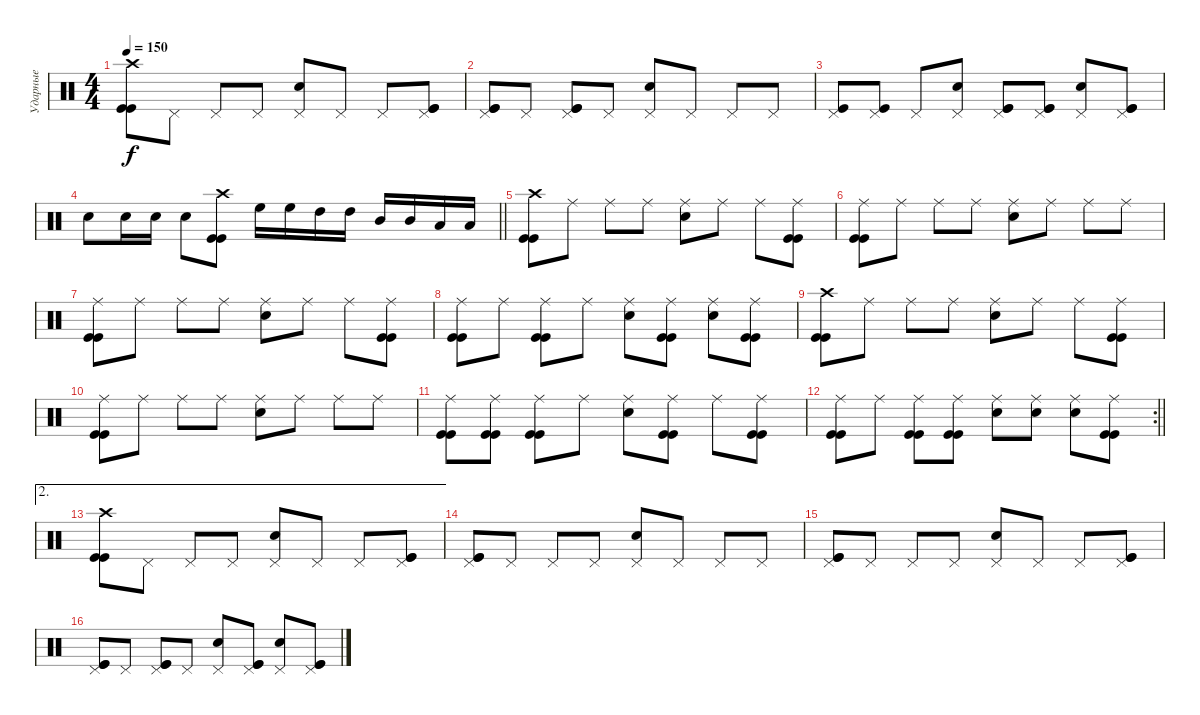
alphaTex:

\track ("Ударные" "Ударные") {instrument percussion}
\staff {score}
\articulation defaults
\ts (4 4)
\tempo 150
\clef neutral
\ks c
("Crash high (hit)" "Kick (hit)" "Kick (hit)").8{dy f} "Pedal Hi-Hat (hit)".8 "Pedal Hi-Hat (hit)".8 "Pedal Hi-Hat (hit)".8 ("Pedal Hi-Hat (hit)" "Electric Snare (hit)").8 "Pedal Hi-Hat (hit)".8 "Pedal Hi-Hat (hit)".8 ("Pedal Hi-Hat (hit)" "Kick (hit)" "Kick (hit)").8 |
("Pedal Hi-Hat (hit)" "Kick (hit)" "Kick (hit)").8 "Pedal Hi-Hat (hit)".8 ("Pedal Hi-Hat (hit)" "Kick (hit)" "Kick (hit)").8 "Pedal Hi-Hat (hit)".8 ("Pedal Hi-Hat (hit)" "Electric Snare (hit)").8 "Pedal Hi-Hat (hit)".8 "Pedal Hi-Hat (hit)".8 "Pedal Hi-Hat (hit)".8 |
("Pedal Hi-Hat (hit)" "Kick (hit)").8 ("Pedal Hi-Hat (hit)" "Kick (hit)").8 "Pedal Hi-Hat (hit)".8 ("Pedal Hi-Hat (hit)" "Electric Snare (hit)").8 ("Pedal Hi-Hat (hit)" "Kick (hit)" "Kick (hit)").8 ("Pedal Hi-Hat (hit)" "Kick (hit)" "Kick (hit)").8 ("Pedal Hi-Hat (hit)" "Electric Snare (hit)").8 ("Pedal Hi-Hat (hit)" "Kick (hit)" "Kick (hit)").8 |
\barLineRight lightlight "Electric Snare (hit)".8 "Electric Snare (hit)".16 "Electric Snare (hit)".16 "Electric Snare (hit)".8
("Crash high (hit)" "Kick (hit)" "Kick (hit)").8 "High Floor Tom (hit)".16 "High Floor Tom (hit)".16 "High Tom (hit)".16 "High Tom (hit)".16 "Mid Tom (hit)".16 "Mid Tom (hit)".16 "Low Tom (hit)".16 "Low Tom (hit)".16 |
("Crash high (hit)" "Kick (hit)" "Kick (hit)").8 "Ride (middle)".8 "Ride (middle)".8 "Ride (middle)".8 ("Ride (middle)" "Electric Snare (hit)").8 "Ride (middle)".8 "Ride (middle)".8 ("Ride (middle)" "Kick (hit)" "Kick (hit)").8 |
("Ride (middle)" "Kick (hit)" "Kick (hit)").8 "Ride (middle)".8 "Ride (middle)".8 "Ride (middle)".8 ("Ride (middle)" "Electric Snare (hit)").8 "Ride (middle)".8 "Ride (middle)".8 "Ride (middle)".8 |
("Ride (middle)" "Kick (hit)" "Kick (hit)").8 "Ride (middle)".8 "Ride (middle)".8 "Ride (middle)".8 ("Ride (middle)" "Electric Snare (hit)").8 "Ride (middle)".8 "Ride (middle)".8 ("Ride (middle)" "Kick (hit)" "Kick (hit)").8 |
("Ride (middle)" "Kick (hit)" "Kick (hit)").8 "Ride (middle)".8 ("Ride (middle)" "Kick (hit)" "Kick (hit)").8 "Ride (middle)".8 ("Ride (middle)" "Electric Snare (hit)").8 ("Ride (middle)" "Kick (hit)" "Kick (hit)").8 ("Ride (middle)" "Electric Snare (hit)").8 ("Ride (middle)" "Kick (hit)" "Kick (hit)").8 |
("Crash high (hit)" "Kick (hit)" "Kick (hit)").8 "Ride (middle)".8 "Ride (middle)".8 "Ride (middle)".8 ("Ride (middle)" "Electric Snare (hit)").8 "Ride (middle)".8 "Ride (middle)".8 ("Ride (middle)" "Kick (hit)" "Kick (hit)").8 |
("Ride (middle)" "Kick (hit)" "Kick (hit)").8 "Ride (middle)".8 "Ride (middle)".8 "Ride (middle)".8 ("Ride (middle)" "Electric Snare (hit)").8 "Ride (middle)".8 "Ride (middle)".8 "Ride (middle)".8 |
("Ride (middle)" "Kick (hit)" "Kick (hit)").8 ("Ride (middle)" "Kick (hit)" "Kick (hit)").8 ("Ride (middle)" "Kick (hit)" "Kick (hit)").8 "Ride (middle)".8 ("Ride (middle)" "Electric Snare (hit)").8 ("Ride (middle)" "Kick (hit)" "Kick (hit)").8 "Ride (middle)".8 ("Ride (middle)" "Kick (hit)" "Kick (hit)").8 |
\rc 2
\barLineRight lightlight
("Ride (middle)" "Kick (hit)" "Kick (hit)").8 "Ride (middle)".8 ("Ride (middle)" "Kick (hit)" "Kick (hit)").8 ("Ride (middle)" "Kick (hit)" "Kick (hit)").8 ("Ride (middle)" "Electric Snare (hit)").8 ("Ride (middle)" "Electric Snare (hit)").8 ("Ride (middle)" "Electric Snare (hit)").8 ("Ride (middle)" "Kick (hit)" "Kick (hit)").8 |
\ae 2
("Crash high (hit)" "Kick (hit)" "Kick (hit)").8 "Pedal Hi-Hat (hit)".8 "Pedal Hi-Hat (hit)".8 "Pedal Hi-Hat (hit)".8 ("Pedal Hi-Hat (hit)" "Electric Snare (hit)").8 "Pedal Hi-Hat (hit)".8 "Pedal Hi-Hat (hit)".8 ("Pedal Hi-Hat (hit)" "Kick (hit)" "Kick (hit)").8 |
("Pedal Hi-Hat (hit)" "Kick (hit)" "Kick (hit)").8 "Pedal Hi-Hat (hit)".8 "Pedal Hi-Hat (hit)".8 "Pedal Hi-Hat (hit)".8 ("Pedal Hi-Hat (hit)" "Electric Snare (hit)").8 "Pedal Hi-Hat (hit)".8 "Pedal Hi-Hat (hit)".8 "Pedal Hi-Hat (hit)".8 |
("Pedal Hi-Hat (hit)" "Kick (hit)" "Kick (hit)").8 "Pedal Hi-Hat (hit)".8 "Pedal Hi-Hat (hit)".8 "Pedal Hi-Hat (hit)".8 ("Pedal Hi-Hat (hit)" "Electric Snare (hit)").8 "Pedal Hi-Hat (hit)".8 "Pedal Hi-Hat (hit)".8 ("Pedal Hi-Hat (hit)" "Kick (hit)" "Kick (hit)").8 |
("Pedal Hi-Hat (hit)" "Kick (hit)" "Kick (hit)").8 "Pedal Hi-Hat (hit)".8 ("Pedal Hi-Hat (hit)" "Kick (hit)" "Kick (hit)").8 "Pedal Hi-Hat (hit)".8 ("Pedal Hi-Hat (hit)" "Electric Snare (hit)").8 ("Pedal Hi-Hat (hit)" "Kick (hit)" "Kick (hit)").8 ("Pedal Hi-Hat (hit)" "Electric Snare (hit)").8 ("Pedal Hi-Hat (hit)" "Kick (hit)" "Kick (hit)").8
